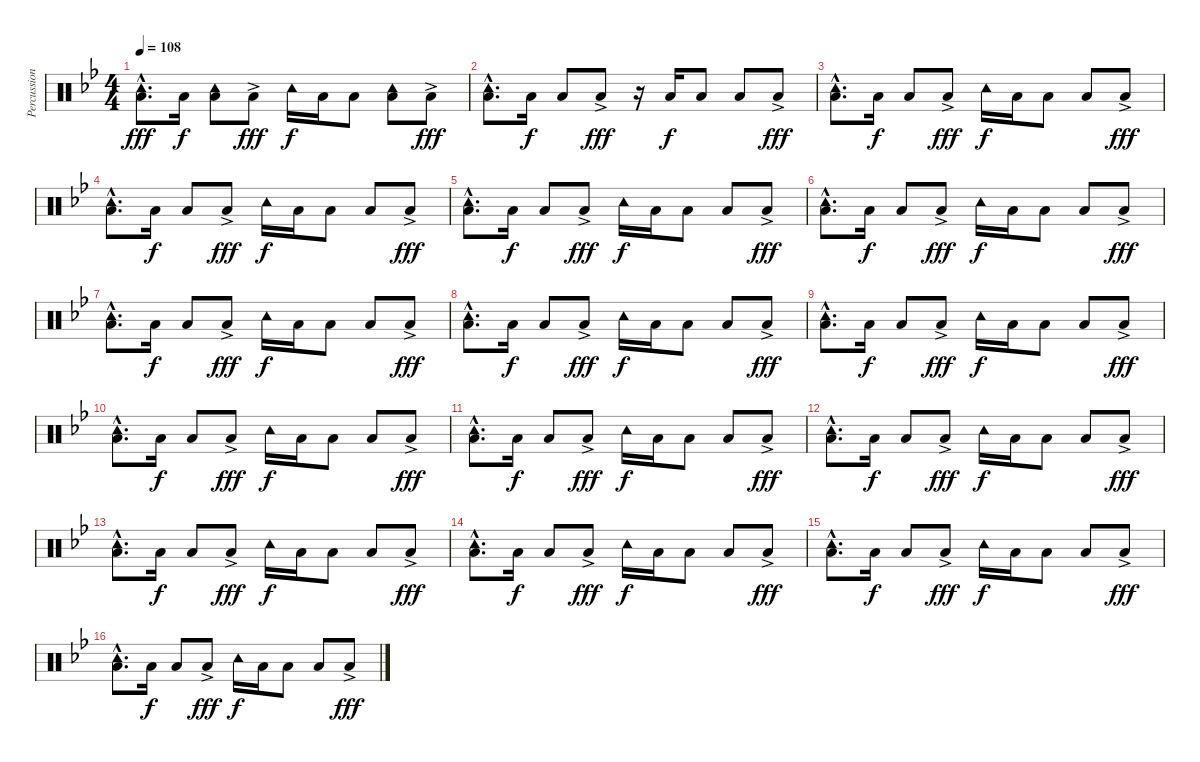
\track ("Percussion" "Percussion") {instrument percussion}
\staff {score}
\articulation defaults
\ts (4 4)
\tempo 108
\clef neutral
\ks bb
("Tambourine (hit)"{hac} "Low Tom (hit)"{hac}).8{d dy fff} "Low Tom (hit)".16{dy f} ("Tambourine (hit)" "Low Tom (hit)").8 "Low Tom (hit)"{ac}.8{dy fff} "Tambourine (hit)".16{dy f} "Low Tom (hit)".16 "Low Tom (hit)".8 ("Tambourine (hit)" "Low Tom (hit)").8 "Low Tom (hit)"{ac}.8{dy fff} |
("Tambourine (hit)"{hac} "Low Tom (hit)"{hac}).8{d} "Low Tom (hit)".16{dy f} "Low Tom (hit)".8 "Low Tom (hit)"{ac}.8{dy fff} r.16 "Low Tom (hit)".16{dy f} "Low Tom (hit)".8 "Low Tom (hit)".8 "Low Tom (hit)"{ac}.8{dy fff} |
("Tambourine (hit)"{hac} "Low Tom (hit)"{hac}).8{d} "Low Tom (hit)".16{dy f} "Low Tom (hit)".8 "Low Tom (hit)"{ac}.8{dy fff} "Tambourine (hit)".16{dy f} "Low Tom (hit)".16 "Low Tom (hit)".8 "Low Tom (hit)".8 "Low Tom (hit)"{ac}.8{dy fff} |
("Tambourine (hit)"{hac} "Low Tom (hit)"{hac}).8{d} "Low Tom (hit)".16{dy f} "Low Tom (hit)".8 "Low Tom (hit)"{ac}.8{dy fff} "Tambourine (hit)".16{dy f} "Low Tom (hit)".16 "Low Tom (hit)".8 "Low Tom (hit)".8 "Low Tom (hit)"{ac}.8{dy fff} |
("Tambourine (hit)"{hac} "Low Tom (hit)"{hac}).8{d} "Low Tom (hit)".16{dy f} "Low Tom (hit)".8 "Low Tom (hit)"{ac}.8{dy fff} "Tambourine (hit)".16{dy f} "Low Tom (hit)".16 "Low Tom (hit)".8 "Low Tom (hit)".8 "Low Tom (hit)"{ac}.8{dy fff} |
("Tambourine (hit)"{hac} "Low Tom (hit)"{hac}).8{d} "Low Tom (hit)".16{dy f} "Low Tom (hit)".8 "Low Tom (hit)"{ac}.8{dy fff} "Tambourine (hit)".16{dy f} "Low Tom (hit)".16 "Low Tom (hit)".8 "Low Tom (hit)".8 "Low Tom (hit)"{ac}.8{dy fff} |
("Tambourine (hit)"{hac} "Low Tom (hit)"{hac}).8{d} "Low Tom (hit)".16{dy f} "Low Tom (hit)".8 "Low Tom (hit)"{ac}.8{dy fff} "Tambourine (hit)".16{dy f} "Low Tom (hit)".16 "Low Tom (hit)".8 "Low Tom (hit)".8 "Low Tom (hit)"{ac}.8{dy fff} |
("Tambourine (hit)"{hac} "Low Tom (hit)"{hac}).8{d} "Low Tom (hit)".16{dy f} "Low Tom (hit)".8 "Low Tom (hit)"{ac}.8{dy fff} "Tambourine (hit)".16{dy f} "Low Tom (hit)".16 "Low Tom (hit)".8 "Low Tom (hit)".8 "Low Tom (hit)"{ac}.8{dy fff} |
("Tambourine (hit)"{hac} "Low Tom (hit)"{hac}).8{d} "Low Tom (hit)".16{dy f} "Low Tom (hit)".8 "Low Tom (hit)"{ac}.8{dy fff} "Tambourine (hit)".16{dy f} "Low Tom (hit)".16 "Low Tom (hit)".8 "Low Tom (hit)".8 "Low Tom (hit)"{ac}.8{dy fff} |
("Tambourine (hit)"{hac} "Low Tom (hit)"{hac}).8{d} "Low Tom (hit)".16{dy f} "Low Tom (hit)".8 "Low Tom (hit)"{ac}.8{dy fff} "Tambourine (hit)".16{dy f} "Low Tom (hit)".16 "Low Tom (hit)".8 "Low Tom (hit)".8 "Low Tom (hit)"{ac}.8{dy fff} |
("Tambourine (hit)"{hac} "Low Tom (hit)"{hac}).8{d} "Low Tom (hit)".16{dy f} "Low Tom (hit)".8 "Low Tom (hit)"{ac}.8{dy fff} "Tambourine (hit)".16{dy f} "Low Tom (hit)".16 "Low Tom (hit)".8 "Low Tom (hit)".8 "Low Tom (hit)"{ac}.8{dy fff} |
("Tambourine (hit)"{hac} "Low Tom (hit)"{hac}).8{d} "Low Tom (hit)".16{dy f} "Low Tom (hit)".8 "Low Tom (hit)"{ac}.8{dy fff} "Tambourine (hit)".16{dy f} "Low Tom (hit)".16 "Low Tom (hit)".8 "Low Tom (hit)".8 "Low Tom (hit)"{ac}.8{dy fff} |
("Tambourine (hit)"{hac} "Low Tom (hit)"{hac}).8{d} "Low Tom (hit)".16{dy f} "Low Tom (hit)".8 "Low Tom (hit)"{ac}.8{dy fff} "Tambourine (hit)".16{dy f} "Low Tom (hit)".16 "Low Tom (hit)".8 "Low Tom (hit)".8 "Low Tom (hit)"{ac}.8{dy fff} |
("Tambourine (hit)"{hac} "Low Tom (hit)"{hac}).8{d} "Low Tom (hit)".16{dy f} "Low Tom (hit)".8 "Low Tom (hit)"{ac}.8{dy fff} "Tambourine (hit)".16{dy f} "Low Tom (hit)".16 "Low Tom (hit)".8 "Low Tom (hit)".8 "Low Tom (hit)"{ac}.8{dy fff} |
("Tambourine (hit)"{hac} "Low Tom (hit)"{hac}).8{d} "Low Tom (hit)".16{dy f} "Low Tom (hit)".8 "Low Tom (hit)"{ac}.8{dy fff} "Tambourine (hit)".16{dy f} "Low Tom (hit)".16 "Low Tom (hit)".8 "Low Tom (hit)".8 "Low Tom (hit)"{ac}.8{dy fff} |
("Tambourine (hit)"{hac} "Low Tom (hit)"{hac}).8{d} "Low Tom (hit)".16{dy f} "Low Tom (hit)".8 "Low Tom (hit)"{ac}.8{dy fff} "Tambourine (hit)".16{dy f} "Low Tom (hit)".16 "Low Tom (hit)".8 "Low Tom (hit)".8 "Low Tom (hit)"{ac}.8{dy fff}
